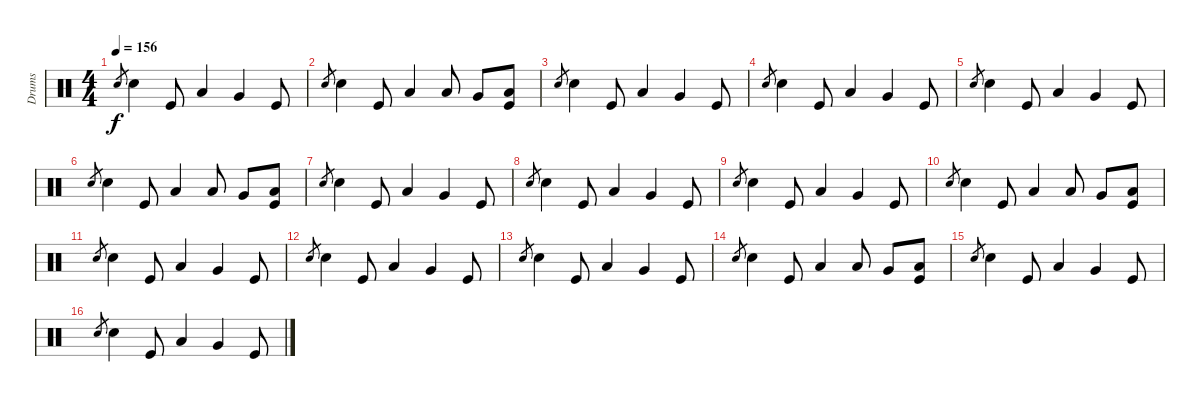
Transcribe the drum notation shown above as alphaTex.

\track ("Drums" "Drums") {instrument percussion}
\staff {score}
\articulation defaults
\ts (4 4)
\tempo 156
\clef neutral
\ks c "Electric Snare (hit)".8{gr dy f} "Electric Snare (hit)".4 "Kick (hit)".8 "Low Tom (hit)".4 "Very Low Tom (hit)".4 "Kick (hit)".8
|
"Electric Snare (hit)".8{gr} "Electric Snare (hit)".4 "Kick (hit)".8 "Low Tom (hit)".4 "Low Tom (hit)".8 "Very Low Tom (hit)".8 ("Low Floor Tom (hit)" "Kick (hit)").8 |
"Electric Snare (hit)".8{gr} "Electric Snare (hit)".4 "Kick (hit)".8 "Low Tom (hit)".4 "Very Low Tom (hit)".4 "Kick (hit)".8 |
"Electric Snare (hit)".8{gr} "Electric Snare (hit)".4 "Kick (hit)".8 "Low Tom (hit)".4 "Very Low Tom (hit)".4 "Kick (hit)".8 |
"Electric Snare (hit)".8{gr} "Electric Snare (hit)".4 "Kick (hit)".8 "Low Tom (hit)".4 "Very Low Tom (hit)".4 "Kick (hit)".8 |
"Electric Snare (hit)".8{gr} "Electric Snare (hit)".4 "Kick (hit)".8 "Low Tom (hit)".4 "Low Tom (hit)".8 "Very Low Tom (hit)".8 ("Low Floor Tom (hit)" "Kick (hit)").8 |
"Electric Snare (hit)".8{gr} "Electric Snare (hit)".4 "Kick (hit)".8 "Low Tom (hit)".4 "Very Low Tom (hit)".4 "Kick (hit)".8 |
"Electric Snare (hit)".8{gr} "Electric Snare (hit)".4 "Kick (hit)".8 "Low Tom (hit)".4 "Very Low Tom (hit)".4 "Kick (hit)".8 |
"Electric Snare (hit)".8{gr} "Electric Snare (hit)".4 "Kick (hit)".8 "Low Tom (hit)".4 "Very Low Tom (hit)".4 "Kick (hit)".8 |
"Electric Snare (hit)".8{gr} "Electric Snare (hit)".4 "Kick (hit)".8 "Low Tom (hit)".4 "Low Tom (hit)".8 "Very Low Tom (hit)".8 ("Low Floor Tom (hit)" "Kick (hit)").8 |
"Electric Snare (hit)".8{gr} "Electric Snare (hit)".4 "Kick (hit)".8 "Low Tom (hit)".4 "Very Low Tom (hit)".4 "Kick (hit)".8 |
"Electric Snare (hit)".8{gr} "Electric Snare (hit)".4 "Kick (hit)".8 "Low Tom (hit)".4 "Very Low Tom (hit)".4 "Kick (hit)".8 |
"Electric Snare (hit)".8{gr} "Electric Snare (hit)".4 "Kick (hit)".8 "Low Tom (hit)".4 "Very Low Tom (hit)".4 "Kick (hit)".8 |
"Electric Snare (hit)".8{gr} "Electric Snare (hit)".4 "Kick (hit)".8 "Low Tom (hit)".4 "Low Tom (hit)".8 "Very Low Tom (hit)".8 ("Low Floor Tom (hit)" "Kick (hit)").8 |
"Electric Snare (hit)".8{gr} "Electric Snare (hit)".4 "Kick (hit)".8 "Low Tom (hit)".4 "Very Low Tom (hit)".4 "Kick (hit)".8 |
"Electric Snare (hit)".8{gr} "Electric Snare (hit)".4 "Kick (hit)".8 "Low Tom (hit)".4 "Very Low Tom (hit)".4 "Kick (hit)".8
